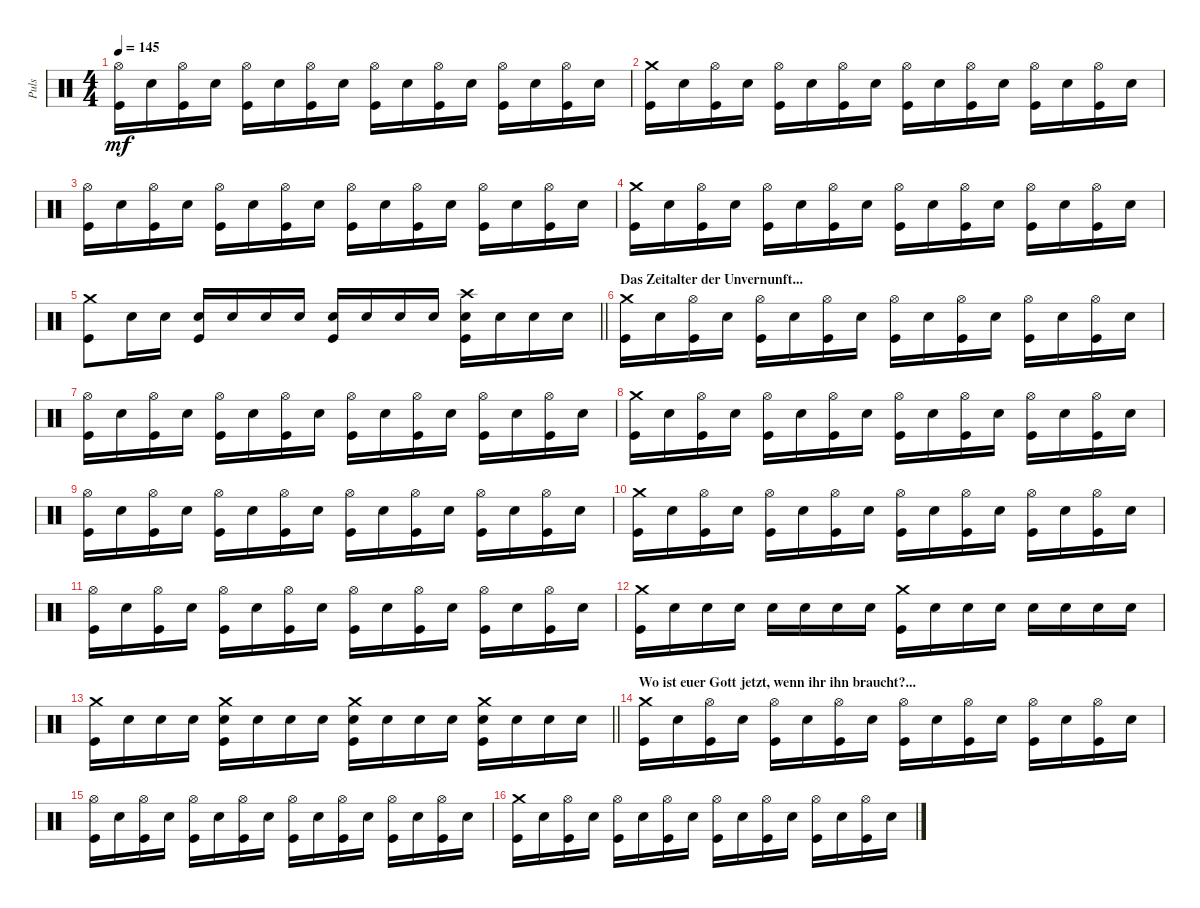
\track ("Puls" "Puls") {instrument percussion}
\staff {score}
\articulation defaults
\ts (4 4)
\tempo 145
\clef neutral
\ks c
("Kick (hit)" "Hi-Hat (open)").16{dy mf} "Snare (hit) 2".16 ("Kick (hit)" "Hi-Hat (open)").16 "Snare (hit) 2".16 ("Kick (hit)" "Hi-Hat (open)").16 "Snare (hit) 2".16 ("Kick (hit)" "Hi-Hat (open)").16 "Snare (hit) 2".16 ("Kick (hit)" "Hi-Hat (open)").16 "Snare (hit) 2".16 ("Kick (hit)" "Hi-Hat (open)").16 "Snare (hit) 2".16 ("Kick (hit)" "Hi-Hat (open)").16 "Snare (hit) 2".16 ("Kick (hit)" "Hi-Hat (open)").16 "Snare (hit) 2".16 |
("Kick (hit)" "Crash medium (hit)").16 "Snare (hit) 2".16 ("Kick (hit)" "Hi-Hat (open)").16 "Snare (hit) 2".16 ("Kick (hit)" "Hi-Hat (open)").16 "Snare (hit) 2".16 ("Kick (hit)" "Hi-Hat (open)").16 "Snare (hit) 2".16 ("Kick (hit)" "Hi-Hat (open)").16 "Snare (hit) 2".16 ("Kick (hit)" "Hi-Hat (open)").16 "Snare (hit) 2".16 ("Kick (hit)" "Hi-Hat (open)").16 "Snare (hit) 2".16 ("Kick (hit)" "Hi-Hat (open)").16 "Snare (hit) 2".16 |
("Kick (hit)" "Hi-Hat (open)").16 "Snare (hit) 2".16 ("Kick (hit)" "Hi-Hat (open)").16 "Snare (hit) 2".16 ("Kick (hit)" "Hi-Hat (open)").16 "Snare (hit) 2".16 ("Kick (hit)" "Hi-Hat (open)").16 "Snare (hit) 2".16 ("Kick (hit)" "Hi-Hat (open)").16 "Snare (hit) 2".16 ("Kick (hit)" "Hi-Hat (open)").16 "Snare (hit) 2".16 ("Kick (hit)" "Hi-Hat (open)").16 "Snare (hit) 2".16 ("Kick (hit)" "Hi-Hat (open)").16 "Snare (hit) 2".16 |
("Kick (hit)" "Crash medium (hit)").16 "Snare (hit) 2".16 ("Kick (hit)" "Hi-Hat (open)").16 "Snare (hit) 2".16 ("Kick (hit)" "Hi-Hat (open)").16 "Snare (hit) 2".16 ("Kick (hit)" "Hi-Hat (open)").16 "Snare (hit) 2".16 ("Kick (hit)" "Hi-Hat (open)").16 "Snare (hit) 2".16 ("Kick (hit)" "Hi-Hat (open)").16 "Snare (hit) 2".16 ("Kick (hit)" "Hi-Hat (open)").16 "Snare (hit) 2".16 ("Kick (hit)" "Hi-Hat (open)").16 "Snare (hit) 2".16 |
\barLineRight lightlight
("Crash medium (hit)" "Kick (hit)").8 "Snare (hit) 2".16 "Snare (hit) 2".16 ("Snare (hit) 2" "Kick (hit)").16 "Snare (hit) 2".16 "Snare (hit) 2".16 "Snare (hit) 2".16 ("Snare (hit) 2" "Kick (hit)").16 "Snare (hit) 2".16 "Snare (hit) 2".16 "Snare (hit) 2".16 ("Snare (hit) 2" "Kick (hit)" "Crash high (hit)").16 "Snare (hit) 2".16 "Snare (hit) 2".16 "Snare (hit) 2".16 |
\section ("" "Das Zeitalter der Unvernunft...")
("Crash medium (hit)" "Kick (hit)").16 "Snare (hit) 2".16 ("Kick (hit)" "Hi-Hat (open)").16 "Snare (hit) 2".16 ("Kick (hit)" "Hi-Hat (open)").16 "Snare (hit) 2".16 ("Kick (hit)" "Hi-Hat (open)").16 "Snare (hit) 2".16 ("Kick (hit)" "Hi-Hat (open)").16 "Snare (hit) 2".16 ("Kick (hit)" "Hi-Hat (open)").16 "Snare (hit) 2".16 ("Kick (hit)" "Hi-Hat (open)").16 "Snare (hit) 2".16 ("Kick (hit)" "Hi-Hat (open)").16 "Snare (hit) 2".16 |
("Kick (hit)" "Hi-Hat (open)").16 "Snare (hit) 2".16 ("Kick (hit)" "Hi-Hat (open)").16 "Snare (hit) 2".16 ("Kick (hit)" "Hi-Hat (open)").16 "Snare (hit) 2".16 ("Kick (hit)" "Hi-Hat (open)").16 "Snare (hit) 2".16 ("Kick (hit)" "Hi-Hat (open)").16 "Snare (hit) 2".16 ("Kick (hit)" "Hi-Hat (open)").16 "Snare (hit) 2".16 ("Kick (hit)" "Hi-Hat (open)").16 "Snare (hit) 2".16 ("Kick (hit)" "Hi-Hat (open)").16 "Snare (hit) 2".16 |
("Crash medium (hit)" "Kick (hit)").16 "Snare (hit) 2".16 ("Kick (hit)" "Hi-Hat (open)").16 "Snare (hit) 2".16 ("Kick (hit)" "Hi-Hat (open)").16 "Snare (hit) 2".16 ("Kick (hit)" "Hi-Hat (open)").16 "Snare (hit) 2".16 ("Kick (hit)" "Hi-Hat (open)").16 "Snare (hit) 2".16 ("Kick (hit)" "Hi-Hat (open)").16 "Snare (hit) 2".16 ("Kick (hit)" "Hi-Hat (open)").16 "Snare (hit) 2".16 ("Kick (hit)" "Hi-Hat (open)").16 "Snare (hit) 2".16 |
("Kick (hit)" "Hi-Hat (open)").16 "Snare (hit) 2".16 ("Kick (hit)" "Hi-Hat (open)").16 "Snare (hit) 2".16 ("Kick (hit)" "Hi-Hat (open)").16 "Snare (hit) 2".16 ("Kick (hit)" "Hi-Hat (open)").16 "Snare (hit) 2".16 ("Kick (hit)" "Hi-Hat (open)").16 "Snare (hit) 2".16 ("Kick (hit)" "Hi-Hat (open)").16 "Snare (hit) 2".16 ("Kick (hit)" "Hi-Hat (open)").16 "Snare (hit) 2".16 ("Kick (hit)" "Hi-Hat (open)").16 "Snare (hit) 2".16 |
("Kick (hit)" "Crash medium (hit)").16 "Snare (hit) 2".16 ("Kick (hit)" "Hi-Hat (open)").16 "Snare (hit) 2".16 ("Kick (hit)" "Hi-Hat (open)").16 "Snare (hit) 2".16 ("Kick (hit)" "Hi-Hat (open)").16 "Snare (hit) 2".16 ("Kick (hit)" "Hi-Hat (open)").16 "Snare (hit) 2".16 ("Kick (hit)" "Hi-Hat (open)").16 "Snare (hit) 2".16 ("Kick (hit)" "Hi-Hat (open)").16 "Snare (hit) 2".16 ("Kick (hit)" "Hi-Hat (open)").16 "Snare (hit) 2".16 |
("Kick (hit)" "Hi-Hat (open)").16 "Snare (hit) 2".16 ("Kick (hit)" "Hi-Hat (open)").16 "Snare (hit) 2".16 ("Kick (hit)" "Hi-Hat (open)").16 "Snare (hit) 2".16 ("Kick (hit)" "Hi-Hat (open)").16 "Snare (hit) 2".16 ("Kick (hit)" "Hi-Hat (open)").16 "Snare (hit) 2".16 ("Kick (hit)" "Hi-Hat (open)").16 "Snare (hit) 2".16 ("Kick (hit)" "Hi-Hat (open)").16 "Snare (hit) 2".16 ("Kick (hit)" "Hi-Hat (open)").16 "Snare (hit) 2".16 |
("Crash medium (hit)" "Kick (hit)").16 "Snare (hit) 2".16 "Snare (hit) 2".16 "Snare (hit) 2".16 "Snare (hit) 2".16 "Snare (hit) 2".16 "Snare (hit) 2".16 "Snare (hit) 2".16 ("Kick (hit)" "Crash medium (hit)").16 "Snare (hit) 2".16 "Snare (hit) 2".16 "Snare (hit) 2".16 "Snare (hit) 2".16 "Snare (hit) 2".16 "Snare (hit) 2".16 "Snare (hit) 2".16 |
\barLineRight lightlight
("Crash medium (hit)" "Kick (hit)").16 "Snare (hit) 2".16 "Snare (hit) 2".16 "Snare (hit) 2".16 ("Snare (hit) 2" "Crash medium (hit)" "Kick (hit)").16 "Snare (hit) 2".16 "Snare (hit) 2".16 "Snare (hit) 2".16 ("Snare (hit) 2" "Kick (hit)" "Crash medium (hit)").16 "Snare (hit) 2".16 "Snare (hit) 2".16 "Snare (hit) 2".16 ("Snare (hit) 2" "Crash medium (hit)" "Kick (hit)").16 "Snare (hit) 2".16 "Snare (hit) 2".16 "Snare (hit) 2".16 |
\section ("" "Wo ist euer Gott jetzt, wenn ihr ihn braucht?...")
("Crash medium (hit)" "Kick (hit)").16 "Snare (hit) 2".16 ("Kick (hit)" "Hi-Hat (open)").16 "Snare (hit) 2".16 ("Kick (hit)" "Hi-Hat (open)").16 "Snare (hit) 2".16 ("Kick (hit)" "Hi-Hat (open)").16 "Snare (hit) 2".16 ("Kick (hit)" "Hi-Hat (open)").16 "Snare (hit) 2".16 ("Kick (hit)" "Hi-Hat (open)").16 "Snare (hit) 2".16 ("Kick (hit)" "Hi-Hat (open)").16 "Snare (hit) 2".16 ("Kick (hit)" "Hi-Hat (open)").16 "Snare (hit) 2".16 |
("Kick (hit)" "Hi-Hat (open)").16 "Snare (hit) 2".16 ("Kick (hit)" "Hi-Hat (open)").16 "Snare (hit) 2".16 ("Kick (hit)" "Hi-Hat (open)").16 "Snare (hit) 2".16 ("Kick (hit)" "Hi-Hat (open)").16 "Snare (hit) 2".16 ("Kick (hit)" "Hi-Hat (open)").16 "Snare (hit) 2".16 ("Kick (hit)" "Hi-Hat (open)").16 "Snare (hit) 2".16 ("Kick (hit)" "Hi-Hat (open)").16 "Snare (hit) 2".16 ("Kick (hit)" "Hi-Hat (open)").16 "Snare (hit) 2".16 |
("Crash medium (hit)" "Kick (hit)").16 "Snare (hit) 2".16 ("Kick (hit)" "Hi-Hat (open)").16 "Snare (hit) 2".16 ("Kick (hit)" "Hi-Hat (open)").16 "Snare (hit) 2".16 ("Kick (hit)" "Hi-Hat (open)").16 "Snare (hit) 2".16 ("Kick (hit)" "Hi-Hat (open)").16 "Snare (hit) 2".16 ("Kick (hit)" "Hi-Hat (open)").16 "Snare (hit) 2".16 ("Kick (hit)" "Hi-Hat (open)").16 "Snare (hit) 2".16 ("Kick (hit)" "Hi-Hat (open)").16 "Snare (hit) 2".16
